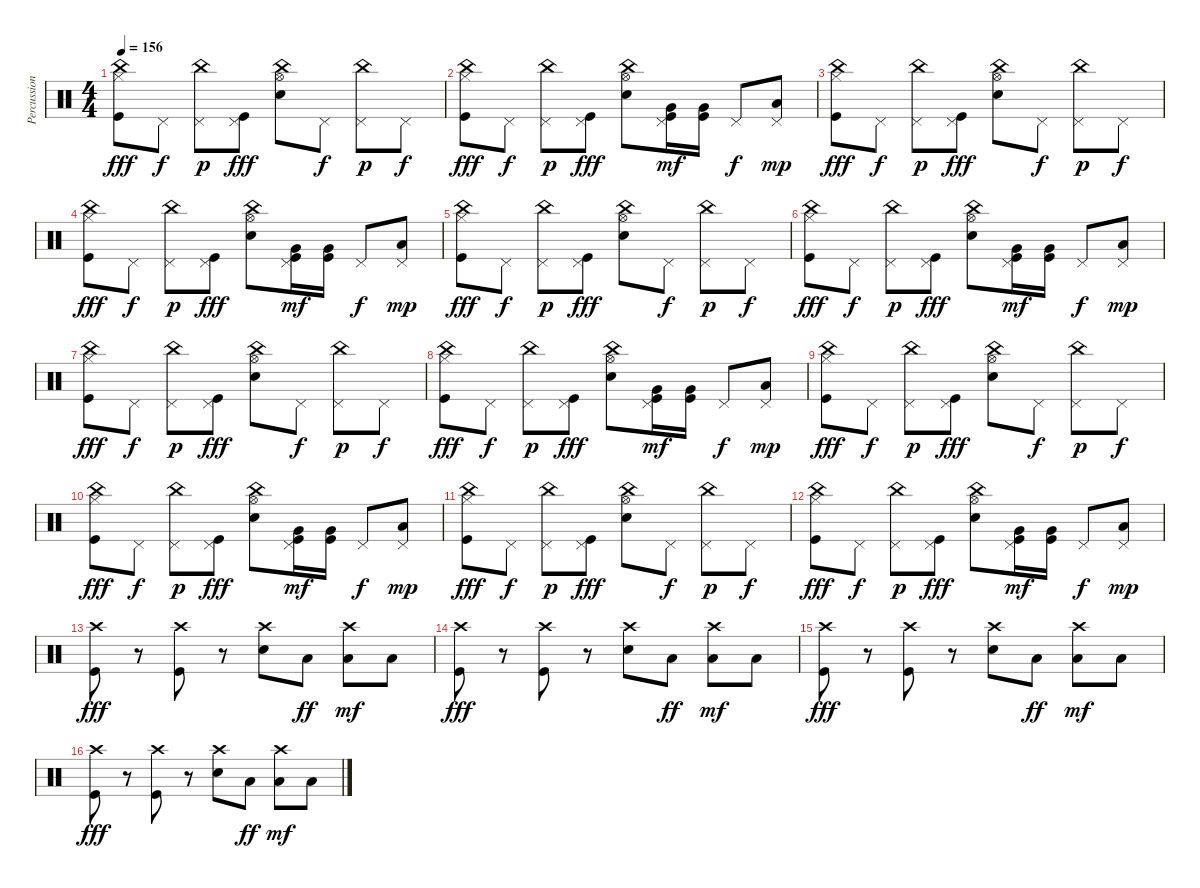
\track ("Percussion" "Percussion") {instrument percussion}
\staff {score}
\articulation defaults
\ts (4 4)
\tempo 156
\clef neutral
\ks c
("China (hit)" "Hi-Hat (closed)" "Kick (hit)").8{dy fff} "Pedal Hi-Hat (hit)".8{dy f} ("China (hit)" "Pedal Hi-Hat (hit)").8{dy p} ("Pedal Hi-Hat (hit)" "Kick (hit)").8{dy fff} ("China (hit)" "Hi-Hat (open)" "Snare (hit) 2").8 "Pedal Hi-Hat (hit)".8{dy f} ("China (hit)" "Pedal Hi-Hat (hit)").8{dy p} "Pedal Hi-Hat (hit)".8{dy f} |
("China (hit)" "Hi-Hat (closed)" "Kick (hit)").8{dy fff} "Pedal Hi-Hat (hit)".8{dy f} ("China (hit)" "Pedal Hi-Hat (hit)").8{dy p} ("Pedal Hi-Hat (hit)" "Kick (hit)").8{dy fff} ("China (hit)" "Hi-Hat (open)" "Snare (hit) 2").8 ("Very Low Tom (hit)" "Pedal Hi-Hat (hit)" "Kick (hit)").16{dy mf} ("Very Low Tom (hit)" "Kick (hit)").16 "Pedal Hi-Hat (hit)".8{dy f} ("Low Tom (hit)" "Pedal Hi-Hat (hit)").8{dy mp} |
("China (hit)" "Hi-Hat (closed)" "Kick (hit)").8{dy fff} "Pedal Hi-Hat (hit)".8{dy f} ("China (hit)" "Pedal Hi-Hat (hit)").8{dy p} ("Pedal Hi-Hat (hit)" "Kick (hit)").8{dy fff} ("China (hit)" "Hi-Hat (open)" "Snare (hit) 2").8 "Pedal Hi-Hat (hit)".8{dy f} ("China (hit)" "Pedal Hi-Hat (hit)").8{dy p} "Pedal Hi-Hat (hit)".8{dy f} |
("China (hit)" "Hi-Hat (closed)" "Kick (hit)").8{dy fff} "Pedal Hi-Hat (hit)".8{dy f} ("China (hit)" "Pedal Hi-Hat (hit)").8{dy p} ("Pedal Hi-Hat (hit)" "Kick (hit)").8{dy fff} ("China (hit)" "Hi-Hat (open)" "Snare (hit) 2").8 ("Very Low Tom (hit)" "Pedal Hi-Hat (hit)" "Kick (hit)").16{dy mf} ("Very Low Tom (hit)" "Kick (hit)").16 "Pedal Hi-Hat (hit)".8{dy f} ("Low Tom (hit)" "Pedal Hi-Hat (hit)").8{dy mp} |
("China (hit)" "Hi-Hat (closed)" "Kick (hit)").8{dy fff} "Pedal Hi-Hat (hit)".8{dy f} ("China (hit)" "Pedal Hi-Hat (hit)").8{dy p} ("Pedal Hi-Hat (hit)" "Kick (hit)").8{dy fff} ("China (hit)" "Hi-Hat (open)" "Snare (hit) 2").8 "Pedal Hi-Hat (hit)".8{dy f} ("China (hit)" "Pedal Hi-Hat (hit)").8{dy p} "Pedal Hi-Hat (hit)".8{dy f} |
("China (hit)" "Hi-Hat (closed)" "Kick (hit)").8{dy fff} "Pedal Hi-Hat (hit)".8{dy f} ("China (hit)" "Pedal Hi-Hat (hit)").8{dy p} ("Pedal Hi-Hat (hit)" "Kick (hit)").8{dy fff} ("China (hit)" "Hi-Hat (open)" "Snare (hit) 2").8 ("Very Low Tom (hit)" "Pedal Hi-Hat (hit)" "Kick (hit)").16{dy mf} ("Very Low Tom (hit)" "Kick (hit)").16 "Pedal Hi-Hat (hit)".8{dy f} ("Low Tom (hit)" "Pedal Hi-Hat (hit)").8{dy mp} |
("China (hit)" "Hi-Hat (closed)" "Kick (hit)").8{dy fff} "Pedal Hi-Hat (hit)".8{dy f} ("China (hit)" "Pedal Hi-Hat (hit)").8{dy p} ("Pedal Hi-Hat (hit)" "Kick (hit)").8{dy fff} ("China (hit)" "Hi-Hat (open)" "Snare (hit) 2").8 "Pedal Hi-Hat (hit)".8{dy f} ("China (hit)" "Pedal Hi-Hat (hit)").8{dy p} "Pedal Hi-Hat (hit)".8{dy f} |
("China (hit)" "Hi-Hat (closed)" "Kick (hit)").8{dy fff} "Pedal Hi-Hat (hit)".8{dy f} ("China (hit)" "Pedal Hi-Hat (hit)").8{dy p} ("Pedal Hi-Hat (hit)" "Kick (hit)").8{dy fff} ("China (hit)" "Hi-Hat (open)" "Snare (hit) 2").8 ("Very Low Tom (hit)" "Pedal Hi-Hat (hit)" "Kick (hit)").16{dy mf} ("Very Low Tom (hit)" "Kick (hit)").16 "Pedal Hi-Hat (hit)".8{dy f} ("Low Tom (hit)" "Pedal Hi-Hat (hit)").8{dy mp} |
("China (hit)" "Hi-Hat (closed)" "Kick (hit)").8{dy fff} "Pedal Hi-Hat (hit)".8{dy f} ("China (hit)" "Pedal Hi-Hat (hit)").8{dy p} ("Pedal Hi-Hat (hit)" "Kick (hit)").8{dy fff} ("China (hit)" "Hi-Hat (open)" "Snare (hit) 2").8 "Pedal Hi-Hat (hit)".8{dy f} ("China (hit)" "Pedal Hi-Hat (hit)").8{dy p} "Pedal Hi-Hat (hit)".8{dy f} |
("China (hit)" "Hi-Hat (closed)" "Kick (hit)").8{dy fff} "Pedal Hi-Hat (hit)".8{dy f} ("China (hit)" "Pedal Hi-Hat (hit)").8{dy p} ("Pedal Hi-Hat (hit)" "Kick (hit)").8{dy fff} ("China (hit)" "Hi-Hat (open)" "Snare (hit) 2").8 ("Very Low Tom (hit)" "Pedal Hi-Hat (hit)" "Kick (hit)").16{dy mf} ("Very Low Tom (hit)" "Kick (hit)").16 "Pedal Hi-Hat (hit)".8{dy f} ("Low Tom (hit)" "Pedal Hi-Hat (hit)").8{dy mp} |
("China (hit)" "Hi-Hat (closed)" "Kick (hit)").8{dy fff} "Pedal Hi-Hat (hit)".8{dy f} ("China (hit)" "Pedal Hi-Hat (hit)").8{dy p} ("Pedal Hi-Hat (hit)" "Kick (hit)").8{dy fff} ("China (hit)" "Hi-Hat (open)" "Snare (hit) 2").8 "Pedal Hi-Hat (hit)".8{dy f} ("China (hit)" "Pedal Hi-Hat (hit)").8{dy p} "Pedal Hi-Hat (hit)".8{dy f} |
("China (hit)" "Hi-Hat (closed)" "Kick (hit)").8{dy fff} "Pedal Hi-Hat (hit)".8{dy f} ("China (hit)" "Pedal Hi-Hat (hit)").8{dy p} ("Pedal Hi-Hat (hit)" "Kick (hit)").8{dy fff} ("China (hit)" "Hi-Hat (open)" "Snare (hit) 2").8 ("Very Low Tom (hit)" "Pedal Hi-Hat (hit)" "Kick (hit)").16{dy mf} ("Very Low Tom (hit)" "Kick (hit)").16 "Pedal Hi-Hat (hit)".8{dy f} ("Low Tom (hit)" "Pedal Hi-Hat (hit)").8{dy mp} |
("Crash high (hit)" "Kick (hit)").8{dy fff} r.8 ("Crash high (hit)" "Kick (hit)").8 r.8 ("Crash high (hit)" "Snare (hit) 2").8 "Low Tom (hit)".8{dy ff} ("Crash high (hit)" "Low Tom (hit)").8{dy mf} "Low Tom (hit)".8 |
("Crash high (hit)" "Kick (hit)").8{dy fff} r.8 ("Crash high (hit)" "Kick (hit)").8 r.8 ("Crash high (hit)" "Snare (hit) 2").8 "Low Tom (hit)".8{dy ff} ("Crash high (hit)" "Low Tom (hit)").8{dy mf} "Low Tom (hit)".8 |
("Crash high (hit)" "Kick (hit)").8{dy fff} r.8 ("Crash high (hit)" "Kick (hit)").8 r.8 ("Crash high (hit)" "Snare (hit) 2").8 "Low Tom (hit)".8{dy ff} ("Crash high (hit)" "Low Tom (hit)").8{dy mf} "Low Tom (hit)".8 |
("Crash high (hit)" "Kick (hit)").8{dy fff} r.8 ("Crash high (hit)" "Kick (hit)").8 r.8 ("Crash high (hit)" "Snare (hit) 2").8 "Low Tom (hit)".8{dy ff} ("Crash high (hit)" "Low Tom (hit)").8{dy mf} "Low Tom (hit)".8
